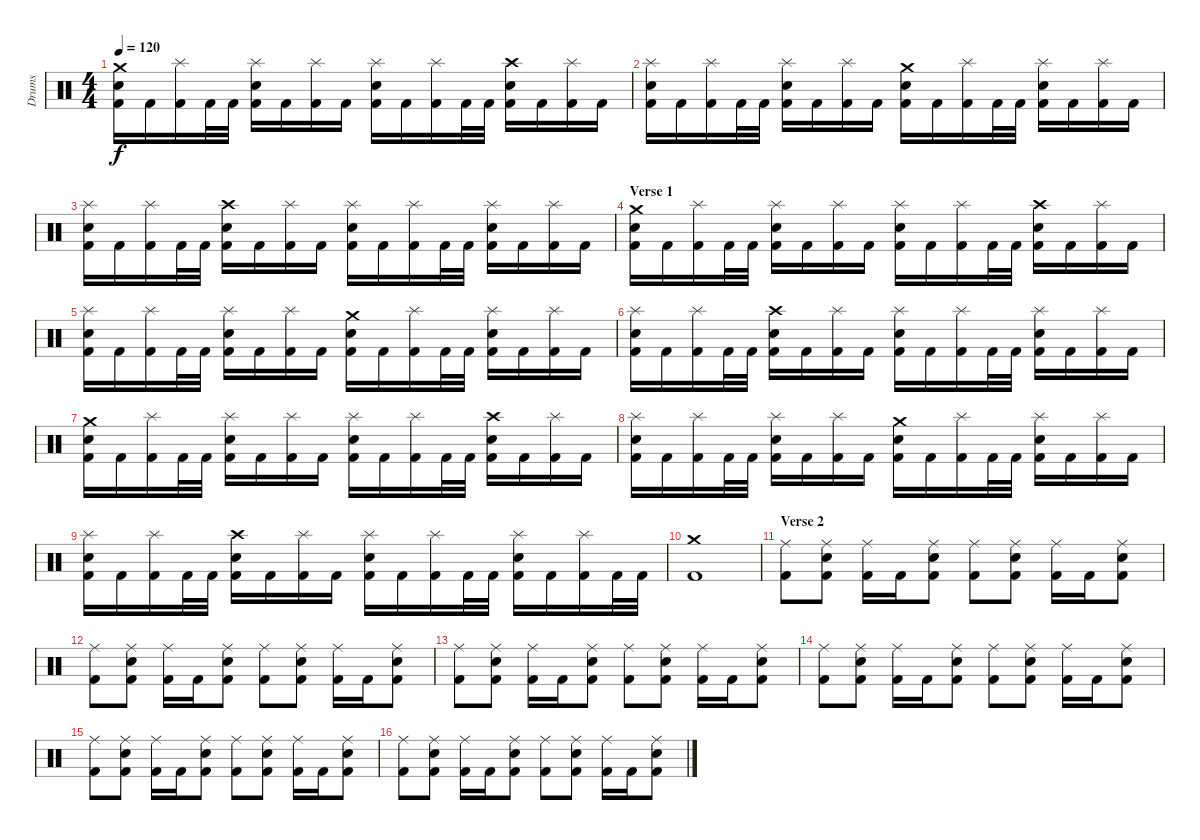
\track ("Drums" "Drums") {instrument percussion}
\staff {score}
\articulation defaults
\ts (4 4)
\tempo 120
\clef neutral
\ks c
("Crash medium (hit)" "Electric Snare (hit)" "Kick (hit) 2").16{dy f} "Kick (hit) 2".16 ("Splash (hit)" "Kick (hit) 2").16 "Kick (hit) 2".32 "Kick (hit) 2".32 ("Splash (hit)" "Electric Snare (hit)" "Kick (hit) 2").16 "Kick (hit) 2".16 ("Splash (hit)" "Kick (hit) 2").16 "Kick (hit) 2".16 ("Splash (hit)" "Electric Snare (hit)" "Kick (hit) 2").16 "Kick (hit) 2".16 ("Splash (hit)" "Kick (hit) 2").16 "Kick (hit) 2".32 "Kick (hit) 2".32 ("Crash high (hit)" "Electric Snare (hit)" "Kick (hit) 2").16 "Kick (hit) 2".16 ("Splash (hit)" "Kick (hit) 2").16 "Kick (hit) 2".16 |
("Splash (hit)" "Electric Snare (hit)" "Kick (hit) 2").16 "Kick (hit) 2".16 ("Splash (hit)" "Kick (hit) 2").16 "Kick (hit) 2".32 "Kick (hit) 2".32 ("Splash (hit)" "Electric Snare (hit)" "Kick (hit) 2").16 "Kick (hit) 2".16 ("Splash (hit)" "Kick (hit) 2").16 "Kick (hit) 2".16 ("Crash medium (hit)" "Electric Snare (hit)" "Kick (hit) 2").16 "Kick (hit) 2".16 ("Splash (hit)" "Kick (hit) 2").16 "Kick (hit) 2".32 "Kick (hit) 2".32 ("Splash (hit)" "Electric Snare (hit)" "Kick (hit) 2").16 "Kick (hit) 2".16 ("Splash (hit)" "Kick (hit) 2").16 "Kick (hit) 2".16 |
("Splash (hit)" "Electric Snare (hit)" "Kick (hit) 2").16 "Kick (hit) 2".16 ("Splash (hit)" "Kick (hit) 2").16 "Kick (hit) 2".32 "Kick (hit) 2".32 ("Crash high (hit)" "Electric Snare (hit)" "Kick (hit) 2").16 "Kick (hit) 2".16 ("Splash (hit)" "Kick (hit) 2").16 "Kick (hit) 2".16 ("Splash (hit)" "Electric Snare (hit)" "Kick (hit) 2").16 "Kick (hit) 2".16 ("Splash (hit)" "Kick (hit) 2").16 "Kick (hit) 2".32 "Kick (hit) 2".32 ("Splash (hit)" "Electric Snare (hit)" "Kick (hit) 2").16 "Kick (hit) 2".16 ("Splash (hit)" "Kick (hit) 2").16 "Kick (hit) 2".16 |
\section ("" "Verse 1")
("Crash medium (hit)" "Electric Snare (hit)" "Kick (hit) 2").16 "Kick (hit) 2".16 ("Splash (hit)" "Kick (hit) 2").16 "Kick (hit) 2".32 "Kick (hit) 2".32 ("Splash (hit)" "Electric Snare (hit)" "Kick (hit) 2").16 "Kick (hit) 2".16 ("Splash (hit)" "Kick (hit) 2").16 "Kick (hit) 2".16 ("Splash (hit)" "Electric Snare (hit)" "Kick (hit) 2").16 "Kick (hit) 2".16 ("Splash (hit)" "Kick (hit) 2").16 "Kick (hit) 2".32 "Kick (hit) 2".32 ("Crash high (hit)" "Electric Snare (hit)" "Kick (hit) 2").16 "Kick (hit) 2".16 ("Splash (hit)" "Kick (hit) 2").16 "Kick (hit) 2".16 |
("Splash (hit)" "Electric Snare (hit)" "Kick (hit) 2").16 "Kick (hit) 2".16 ("Splash (hit)" "Kick (hit) 2").16 "Kick (hit) 2".32 "Kick (hit) 2".32 ("Splash (hit)" "Electric Snare (hit)" "Kick (hit) 2").16 "Kick (hit) 2".16 ("Splash (hit)" "Kick (hit) 2").16 "Kick (hit) 2".16 ("Crash medium (hit)" "Electric Snare (hit)" "Kick (hit) 2").16 "Kick (hit) 2".16 ("Splash (hit)" "Kick (hit) 2").16 "Kick (hit) 2".32 "Kick (hit) 2".32 ("Splash (hit)" "Electric Snare (hit)" "Kick (hit) 2").16 "Kick (hit) 2".16 ("Splash (hit)" "Kick (hit) 2").16 "Kick (hit) 2".16 |
("Splash (hit)" "Electric Snare (hit)" "Kick (hit) 2").16 "Kick (hit) 2".16 ("Splash (hit)" "Kick (hit) 2").16 "Kick (hit) 2".32 "Kick (hit) 2".32 ("Crash high (hit)" "Electric Snare (hit)" "Kick (hit) 2").16 "Kick (hit) 2".16 ("Splash (hit)" "Kick (hit) 2").16 "Kick (hit) 2".16 ("Splash (hit)" "Electric Snare (hit)" "Kick (hit) 2").16 "Kick (hit) 2".16 ("Splash (hit)" "Kick (hit) 2").16 "Kick (hit) 2".32 "Kick (hit) 2".32 ("Splash (hit)" "Electric Snare (hit)" "Kick (hit) 2").16 "Kick (hit) 2".16 ("Splash (hit)" "Kick (hit) 2").16 "Kick (hit) 2".16 |
("Crash medium (hit)" "Electric Snare (hit)" "Kick (hit) 2").16 "Kick (hit) 2".16 ("Splash (hit)" "Kick (hit) 2").16 "Kick (hit) 2".32 "Kick (hit) 2".32 ("Splash (hit)" "Electric Snare (hit)" "Kick (hit) 2").16 "Kick (hit) 2".16 ("Splash (hit)" "Kick (hit) 2").16 "Kick (hit) 2".16 ("Splash (hit)" "Electric Snare (hit)" "Kick (hit) 2").16 "Kick (hit) 2".16 ("Splash (hit)" "Kick (hit) 2").16 "Kick (hit) 2".32 "Kick (hit) 2".32 ("Crash high (hit)" "Electric Snare (hit)" "Kick (hit) 2").16 "Kick (hit) 2".16 ("Splash (hit)" "Kick (hit) 2").16 "Kick (hit) 2".16 |
("Splash (hit)" "Electric Snare (hit)" "Kick (hit) 2").16 "Kick (hit) 2".16 ("Splash (hit)" "Kick (hit) 2").16 "Kick (hit) 2".32 "Kick (hit) 2".32 ("Splash (hit)" "Electric Snare (hit)" "Kick (hit) 2").16 "Kick (hit) 2".16 ("Splash (hit)" "Kick (hit) 2").16 "Kick (hit) 2".16 ("Crash medium (hit)" "Electric Snare (hit)" "Kick (hit) 2").16 "Kick (hit) 2".16 ("Splash (hit)" "Kick (hit) 2").16 "Kick (hit) 2".32 "Kick (hit) 2".32 ("Splash (hit)" "Electric Snare (hit)" "Kick (hit) 2").16 "Kick (hit) 2".16 ("Splash (hit)" "Kick (hit) 2").16 "Kick (hit) 2".16 |
("Splash (hit)" "Electric Snare (hit)" "Kick (hit) 2").16 "Kick (hit) 2".16 ("Splash (hit)" "Kick (hit) 2").16 "Kick (hit) 2".32 "Kick (hit) 2".32 ("Crash high (hit)" "Electric Snare (hit)" "Kick (hit) 2").16 "Kick (hit) 2".16 ("Splash (hit)" "Kick (hit) 2").16 "Kick (hit) 2".16 ("Splash (hit)" "Electric Snare (hit)" "Kick (hit) 2").16 "Kick (hit) 2".16 ("Splash (hit)" "Kick (hit) 2").16 "Kick (hit) 2".32 "Kick (hit) 2".32 ("Splash (hit)" "Electric Snare (hit)" "Kick (hit) 2").16 "Kick (hit) 2".16 ("Splash (hit)" "Kick (hit) 2").16 "Kick (hit) 2".32 "Kick (hit) 2".32 |
("Crash medium (hit)" "Kick (hit) 2").1 |
\section ("" "Verse 2")
("Ride (middle)" "Kick (hit) 2").8 ("Ride (middle)" "Electric Snare (hit)" "Kick (hit) 2").8 ("Ride (middle)" "Kick (hit) 2").16 "Kick (hit) 2".16 ("Ride (middle)" "Electric Snare (hit)" "Kick (hit) 2").8 ("Ride (middle)" "Kick (hit) 2").8 ("Ride (middle)" "Electric Snare (hit)" "Kick (hit) 2").8 ("Ride (middle)" "Kick (hit) 2").16 "Kick (hit) 2".16 ("Ride (middle)" "Electric Snare (hit)" "Kick (hit) 2").8 |
("Ride (middle)" "Kick (hit) 2").8 ("Ride (middle)" "Electric Snare (hit)" "Kick (hit) 2").8 ("Ride (middle)" "Kick (hit) 2").16 "Kick (hit) 2".16 ("Ride (middle)" "Electric Snare (hit)" "Kick (hit) 2").8 ("Ride (middle)" "Kick (hit) 2").8 ("Ride (middle)" "Electric Snare (hit)" "Kick (hit) 2").8 ("Ride (middle)" "Kick (hit) 2").16 "Kick (hit) 2".16 ("Ride (middle)" "Electric Snare (hit)" "Kick (hit) 2").8 |
("Ride (middle)" "Kick (hit) 2").8 ("Ride (middle)" "Electric Snare (hit)" "Kick (hit) 2").8 ("Ride (middle)" "Kick (hit) 2").16 "Kick (hit) 2".16 ("Ride (middle)" "Electric Snare (hit)" "Kick (hit) 2").8 ("Ride (middle)" "Kick (hit) 2").8 ("Ride (middle)" "Electric Snare (hit)" "Kick (hit) 2").8 ("Ride (middle)" "Kick (hit) 2").16 "Kick (hit) 2".16 ("Ride (middle)" "Electric Snare (hit)" "Kick (hit) 2").8 |
("Ride (middle)" "Kick (hit) 2").8 ("Ride (middle)" "Electric Snare (hit)" "Kick (hit) 2").8 ("Ride (middle)" "Kick (hit) 2").16 "Kick (hit) 2".16 ("Ride (middle)" "Electric Snare (hit)" "Kick (hit) 2").8 ("Ride (middle)" "Kick (hit) 2").8 ("Ride (middle)" "Electric Snare (hit)" "Kick (hit) 2").8 ("Ride (middle)" "Kick (hit) 2").16 "Kick (hit) 2".16 ("Ride (middle)" "Electric Snare (hit)" "Kick (hit) 2").8 |
("Ride (middle)" "Kick (hit) 2").8 ("Ride (middle)" "Electric Snare (hit)" "Kick (hit) 2").8 ("Ride (middle)" "Kick (hit) 2").16 "Kick (hit) 2".16 ("Ride (middle)" "Electric Snare (hit)" "Kick (hit) 2").8 ("Ride (middle)" "Kick (hit) 2").8 ("Ride (middle)" "Electric Snare (hit)" "Kick (hit) 2").8 ("Ride (middle)" "Kick (hit) 2").16 "Kick (hit) 2".16 ("Ride (middle)" "Electric Snare (hit)" "Kick (hit) 2").8 |
("Ride (middle)" "Kick (hit) 2").8 ("Ride (middle)" "Electric Snare (hit)" "Kick (hit) 2").8 ("Ride (middle)" "Kick (hit) 2").16 "Kick (hit) 2".16 ("Ride (middle)" "Electric Snare (hit)" "Kick (hit) 2").8 ("Ride (middle)" "Kick (hit) 2").8 ("Ride (middle)" "Electric Snare (hit)" "Kick (hit) 2").8 ("Ride (middle)" "Kick (hit) 2").16 "Kick (hit) 2".16 ("Ride (middle)" "Electric Snare (hit)" "Kick (hit) 2").8
